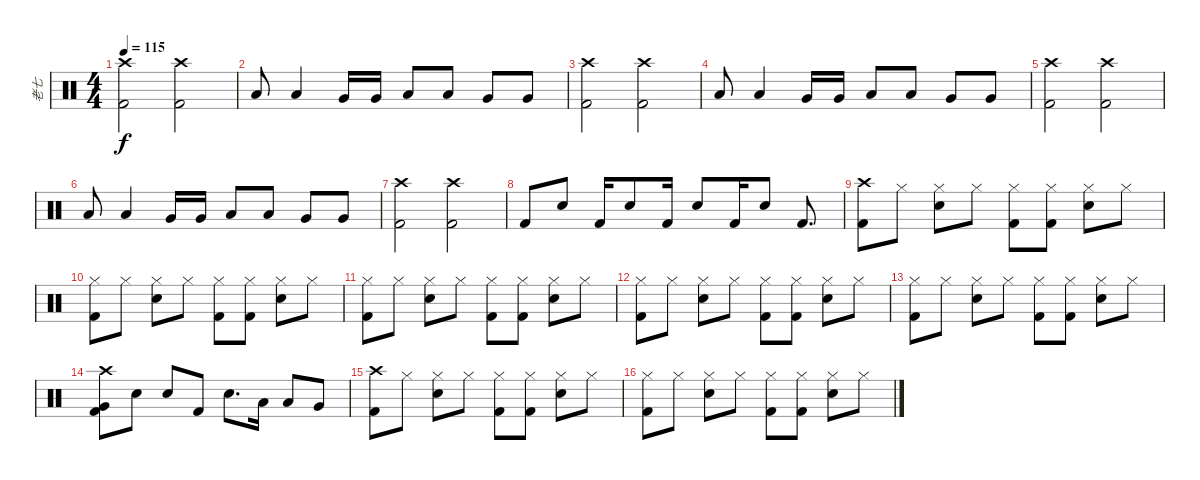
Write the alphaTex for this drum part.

\track ("老七" "老七") {instrument percussion}
\staff {score}
\articulation defaults
\ts (4 4)
\tempo 115
\clef neutral
\ks c
("Crash high (hit)" "Kick (hit) 2").2{dy f} ("Crash high (hit)" "Kick (hit) 2").2 |
"Low Tom (hit)".8 "Low Tom (hit)".4 "Very Low Tom (hit)".16 "Very Low Tom (hit)".16 "Low Tom (hit)".8 "Low Tom (hit)".8 "Very Low Tom (hit)".8 "Very Low Tom (hit)".8 |
("Crash high (hit)" "Kick (hit) 2").2 ("Crash high (hit)" "Kick (hit) 2").2 |
"Low Tom (hit)".8 "Low Tom (hit)".4 "Very Low Tom (hit)".16 "Very Low Tom (hit)".16 "Low Tom (hit)".8 "Low Tom (hit)".8 "Very Low Tom (hit)".8 "Very Low Tom (hit)".8 |
("Crash high (hit)" "Kick (hit) 2").2 ("Crash high (hit)" "Kick (hit) 2").2 |
"Low Tom (hit)".8 "Low Tom (hit)".4 "Very Low Tom (hit)".16 "Very Low Tom (hit)".16 "Low Tom (hit)".8 "Low Tom (hit)".8 "Very Low Tom (hit)".8 "Very Low Tom (hit)".8 |
("Crash high (hit)" "Kick (hit) 2").2 ("Crash high (hit)" "Kick (hit) 2").2 |
"Kick (hit) 2".8 "Electric Snare (hit)".8 "Kick (hit) 2".16 "Electric Snare (hit)".8 "Kick (hit) 2".16 "Electric Snare (hit)".8 "Kick (hit) 2".16 "Electric Snare (hit)".8 "Kick (hit) 2".8{d} |
("Crash high (hit)" "Kick (hit) 2").8 "Hi-Hat (closed)".8 ("Hi-Hat (closed)" "Electric Snare (hit)").8 "Hi-Hat (closed)".8 ("Hi-Hat (closed)" "Kick (hit) 2").8 ("Hi-Hat (closed)" "Kick (hit) 2").8 ("Hi-Hat (closed)" "Electric Snare (hit)").8 "Hi-Hat (closed)".8 |
("Hi-Hat (closed)" "Kick (hit) 2").8 "Hi-Hat (closed)".8 ("Hi-Hat (closed)" "Electric Snare (hit)").8 "Hi-Hat (closed)".8 ("Hi-Hat (closed)" "Kick (hit) 2").8 ("Hi-Hat (closed)" "Kick (hit) 2").8 ("Hi-Hat (closed)" "Electric Snare (hit)").8 "Hi-Hat (closed)".8 |
("Hi-Hat (closed)" "Kick (hit) 2").8 "Hi-Hat (closed)".8 ("Hi-Hat (closed)" "Electric Snare (hit)").8 "Hi-Hat (closed)".8 ("Hi-Hat (closed)" "Kick (hit) 2").8 ("Hi-Hat (closed)" "Kick (hit) 2").8 ("Hi-Hat (closed)" "Electric Snare (hit)").8 "Hi-Hat (closed)".8 |
("Hi-Hat (closed)" "Kick (hit) 2").8 "Hi-Hat (closed)".8 ("Hi-Hat (closed)" "Electric Snare (hit)").8 "Hi-Hat (closed)".8 ("Hi-Hat (closed)" "Kick (hit) 2").8 ("Hi-Hat (closed)" "Kick (hit) 2").8 ("Hi-Hat (closed)" "Electric Snare (hit)").8 "Hi-Hat (closed)".8 |
("Hi-Hat (closed)" "Kick (hit) 2").8 "Hi-Hat (closed)".8 ("Hi-Hat (closed)" "Electric Snare (hit)").8 "Hi-Hat (closed)".8 ("Hi-Hat (closed)" "Kick (hit) 2").8 ("Hi-Hat (closed)" "Kick (hit) 2").8 ("Hi-Hat (closed)" "Electric Snare (hit)").8 "Hi-Hat (closed)".8 |
("Crash high (hit)" "Very Low Tom (hit)" "Kick (hit) 2").8 "Electric Snare (hit)".8 "Electric Snare (hit)".8 "Kick (hit) 2".8 "Electric Snare (hit)".8{d} "Low Tom (hit)".16 "Low Tom (hit)".8 "Very Low Tom (hit)".8 |
("Crash high (hit)" "Kick (hit) 2").8 "Hi-Hat (closed)".8 ("Hi-Hat (closed)" "Electric Snare (hit)").8 "Hi-Hat (closed)".8 ("Hi-Hat (closed)" "Kick (hit) 2").8 ("Hi-Hat (closed)" "Kick (hit) 2").8 ("Hi-Hat (closed)" "Electric Snare (hit)").8 "Hi-Hat (closed)".8 |
("Hi-Hat (closed)" "Kick (hit) 2").8 "Hi-Hat (closed)".8 ("Hi-Hat (closed)" "Electric Snare (hit)").8 "Hi-Hat (closed)".8 ("Hi-Hat (closed)" "Kick (hit) 2").8 ("Hi-Hat (closed)" "Kick (hit) 2").8 ("Hi-Hat (closed)" "Electric Snare (hit)").8 "Hi-Hat (closed)".8
